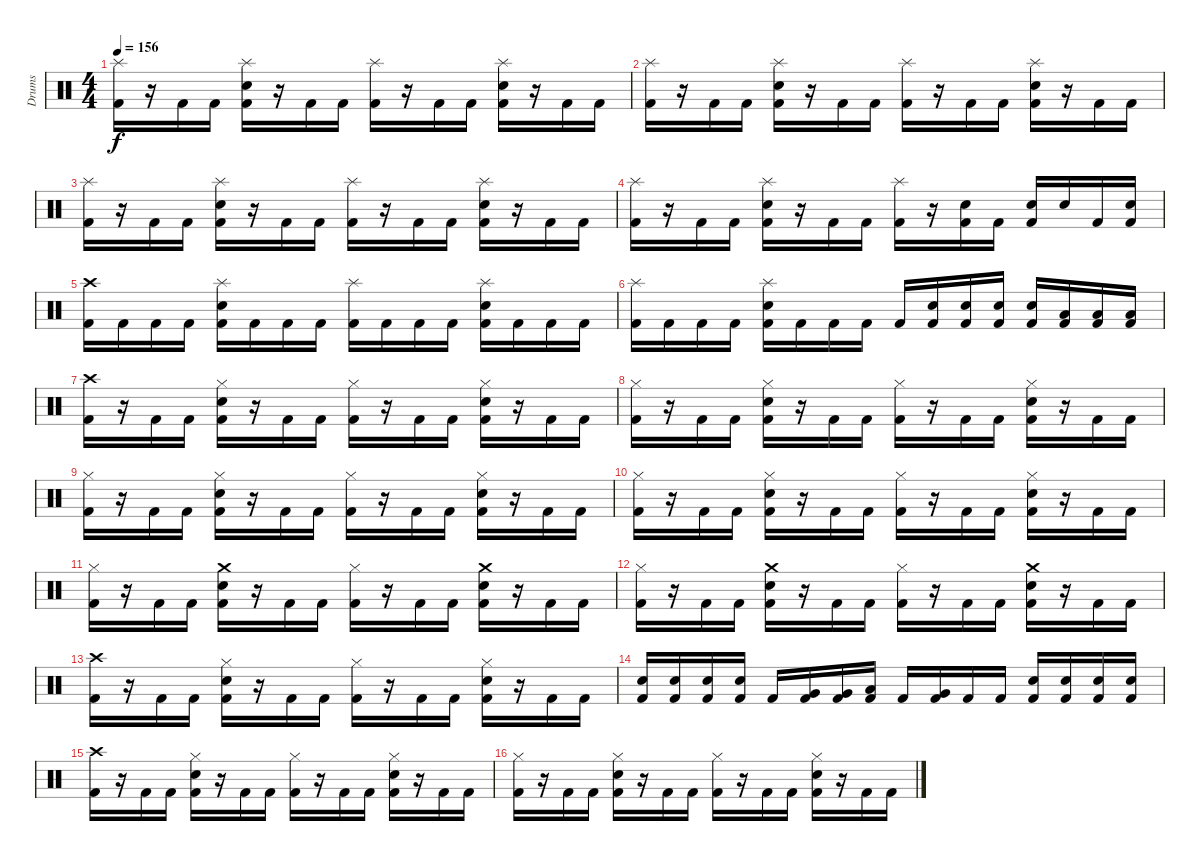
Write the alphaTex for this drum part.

\track ("Drums" "Drums") {instrument percussion}
\staff {score}
\articulation defaults
\ts (4 4)
\tempo 156
\clef neutral
\ks c
("Splash (hit)" "Kick (hit) 2").16{dy f} r.16 "Kick (hit) 2".16 "Kick (hit) 2".16 ("Splash (hit)" "Snare (hit) 2" "Kick (hit) 2").16 r.16 "Kick (hit) 2".16 "Kick (hit) 2".16 ("Splash (hit)" "Kick (hit) 2").16 r.16 "Kick (hit) 2".16 "Kick (hit) 2".16 ("Splash (hit)" "Snare (hit) 2" "Kick (hit) 2").16 r.16 "Kick (hit) 2".16 "Kick (hit) 2".16 |
("Splash (hit)" "Kick (hit) 2").16 r.16 "Kick (hit) 2".16 "Kick (hit) 2".16 ("Splash (hit)" "Snare (hit) 2" "Kick (hit) 2").16 r.16 "Kick (hit) 2".16 "Kick (hit) 2".16 ("Splash (hit)" "Kick (hit) 2").16 r.16 "Kick (hit) 2".16 "Kick (hit) 2".16 ("Splash (hit)" "Snare (hit) 2" "Kick (hit) 2").16 r.16 "Kick (hit) 2".16 "Kick (hit) 2".16 |
("Splash (hit)" "Kick (hit) 2").16 r.16 "Kick (hit) 2".16 "Kick (hit) 2".16 ("Splash (hit)" "Snare (hit) 2" "Kick (hit) 2").16 r.16 "Kick (hit) 2".16 "Kick (hit) 2".16 ("Splash (hit)" "Kick (hit) 2").16 r.16 "Kick (hit) 2".16 "Kick (hit) 2".16 ("Splash (hit)" "Snare (hit) 2" "Kick (hit) 2").16 r.16 "Kick (hit) 2".16 "Kick (hit) 2".16 |
("Splash (hit)" "Kick (hit) 2").16 r.16 "Kick (hit) 2".16 "Kick (hit) 2".16 ("Splash (hit)" "Snare (hit) 2" "Kick (hit) 2").16 r.16 "Kick (hit) 2".16 "Kick (hit) 2".16 ("Splash (hit)" "Kick (hit) 2").16 r.16 ("Snare (hit) 2" "Kick (hit) 2").16 "Kick (hit) 2".16 ("Snare (hit) 2" "Kick (hit) 2").16 "Snare (hit) 2".16 "Kick (hit) 2".16 ("Snare (hit) 2" "Kick (hit) 2").16 |
("Crash high (hit)" "Kick (hit) 2").16 "Kick (hit) 2".16 "Kick (hit) 2".16 "Kick (hit) 2".16 ("Splash (hit)" "Snare (hit) 2" "Kick (hit) 2").16 "Kick (hit) 2".16 "Kick (hit) 2".16 "Kick (hit) 2".16 ("Splash (hit)" "Kick (hit) 2").16 "Kick (hit) 2".16 "Kick (hit) 2".16 "Kick (hit) 2".16 ("Splash (hit)" "Snare (hit) 2" "Kick (hit) 2").16 "Kick (hit) 2".16 "Kick (hit) 2".16 "Kick (hit) 2".16 |
("Splash (hit)" "Kick (hit) 2").16 "Kick (hit) 2".16 "Kick (hit) 2".16 "Kick (hit) 2".16 ("Splash (hit)" "Snare (hit) 2" "Kick (hit) 2").16 "Kick (hit) 2".16 "Kick (hit) 2".16 "Kick (hit) 2".16 "Kick (hit) 2".16 ("Snare (hit) 2" "Kick (hit) 2").16 ("Snare (hit) 2" "Kick (hit) 2").16 ("Snare (hit) 2" "Kick (hit) 2").16 ("Snare (hit) 2" "Kick (hit) 2").16 ("Low Tom (hit)" "Kick (hit) 2").16 ("Low Tom (hit)" "Kick (hit) 2").16 ("Low Tom (hit)" "Kick (hit) 2").16 |
\section ("" "")
("Crash high (hit)" "Kick (hit) 2").16 r.16 "Kick (hit) 2".16 "Kick (hit) 2".16 ("Hi-Hat (closed)" "Snare (hit) 2" "Kick (hit) 2").16 r.16 "Kick (hit) 2".16 "Kick (hit) 2".16 ("Hi-Hat (closed)" "Kick (hit) 2").16 r.16 "Kick (hit) 2".16 "Kick (hit) 2".16 ("Hi-Hat (closed)" "Snare (hit) 2" "Kick (hit) 2").16 r.16 "Kick (hit) 2".16 "Kick (hit) 2".16 |
("Hi-Hat (closed)" "Kick (hit) 2").16 r.16 "Kick (hit) 2".16 "Kick (hit) 2".16 ("Hi-Hat (closed)" "Snare (hit) 2" "Kick (hit) 2").16 r.16 "Kick (hit) 2".16 "Kick (hit) 2".16 ("Hi-Hat (closed)" "Kick (hit) 2").16 r.16 "Kick (hit) 2".16 "Kick (hit) 2".16 ("Hi-Hat (closed)" "Snare (hit) 2" "Kick (hit) 2").16 r.16 "Kick (hit) 2".16 "Kick (hit) 2".16 |
("Hi-Hat (closed)" "Kick (hit) 2").16 r.16 "Kick (hit) 2".16 "Kick (hit) 2".16 ("Hi-Hat (closed)" "Snare (hit) 2" "Kick (hit) 2").16 r.16 "Kick (hit) 2".16 "Kick (hit) 2".16 ("Hi-Hat (closed)" "Kick (hit) 2").16 r.16 "Kick (hit) 2".16 "Kick (hit) 2".16 ("Hi-Hat (closed)" "Snare (hit) 2" "Kick (hit) 2").16 r.16 "Kick (hit) 2".16 "Kick (hit) 2".16 |
("Hi-Hat (closed)" "Kick (hit) 2").16 r.16 "Kick (hit) 2".16 "Kick (hit) 2".16 ("Hi-Hat (closed)" "Snare (hit) 2" "Kick (hit) 2").16 r.16 "Kick (hit) 2".16 "Kick (hit) 2".16 ("Hi-Hat (closed)" "Kick (hit) 2").16 r.16 "Kick (hit) 2".16 "Kick (hit) 2".16 ("Hi-Hat (closed)" "Snare (hit) 2" "Kick (hit) 2").16 r.16 "Kick (hit) 2".16 "Kick (hit) 2".16 |
("Hi-Hat (closed)" "Kick (hit) 2").16 r.16 "Kick (hit) 2".16 "Kick (hit) 2".16 ("Crash medium (hit)" "Snare (hit) 2" "Kick (hit) 2").16 r.16 "Kick (hit) 2".16 "Kick (hit) 2".16 ("Hi-Hat (closed)" "Kick (hit) 2").16 r.16 "Kick (hit) 2".16 "Kick (hit) 2".16 ("Crash medium (hit)" "Snare (hit) 2" "Kick (hit) 2").16 r.16 "Kick (hit) 2".16 "Kick (hit) 2".16 |
("Hi-Hat (closed)" "Kick (hit) 2").16 r.16 "Kick (hit) 2".16 "Kick (hit) 2".16 ("Crash medium (hit)" "Snare (hit) 2" "Kick (hit) 2").16 r.16 "Kick (hit) 2".16 "Kick (hit) 2".16 ("Hi-Hat (closed)" "Kick (hit) 2").16 r.16 "Kick (hit) 2".16 "Kick (hit) 2".16 ("Crash medium (hit)" "Snare (hit) 2" "Kick (hit) 2").16 r.16 "Kick (hit) 2".16 "Kick (hit) 2".16 |
("Crash high (hit)" "Kick (hit) 2").16 r.16 "Kick (hit) 2".16 "Kick (hit) 2".16 ("Hi-Hat (closed)" "Snare (hit) 2" "Kick (hit) 2").16 r.16 "Kick (hit) 2".16 "Kick (hit) 2".16 ("Hi-Hat (closed)" "Kick (hit) 2").16 r.16 "Kick (hit) 2".16 "Kick (hit) 2".16 ("Hi-Hat (closed)" "Snare (hit) 2" "Kick (hit) 2").16 r.16 "Kick (hit) 2".16 "Kick (hit) 2".16 |
("Snare (hit) 2" "Kick (hit) 2").16 ("Snare (hit) 2" "Kick (hit) 2").16 ("Snare (hit) 2" "Kick (hit) 2").16 ("Snare (hit) 2" "Kick (hit) 2").16 "Kick (hit) 2".16 ("Very Low Tom (hit)" "Kick (hit) 2").16 ("Very Low Tom (hit)" "Kick (hit) 2").16 ("Low Floor Tom (hit)" "Kick (hit) 2").16 "Kick (hit) 2".16 ("Very Low Tom (hit)" "Kick (hit) 2").16 "Kick (hit) 2".16 "Kick (hit) 2".16 ("Snare (hit) 2" "Kick (hit) 2").16 ("Snare (hit) 2" "Kick (hit) 2").16 ("Snare (hit) 2" "Kick (hit) 2").16 ("Snare (hit) 2" "Kick (hit) 2").16 |
("Crash high (hit)" "Kick (hit) 2").16 r.16 "Kick (hit) 2".16 "Kick (hit) 2".16 ("Hi-Hat (closed)" "Snare (hit) 2" "Kick (hit) 2").16 r.16 "Kick (hit) 2".16 "Kick (hit) 2".16 ("Hi-Hat (closed)" "Kick (hit) 2").16 r.16 "Kick (hit) 2".16 "Kick (hit) 2".16 ("Hi-Hat (closed)" "Snare (hit) 2" "Kick (hit) 2").16 r.16 "Kick (hit) 2".16 "Kick (hit) 2".16 |
("Hi-Hat (closed)" "Kick (hit) 2").16 r.16 "Kick (hit) 2".16 "Kick (hit) 2".16 ("Hi-Hat (closed)" "Snare (hit) 2" "Kick (hit) 2").16 r.16 "Kick (hit) 2".16 "Kick (hit) 2".16 ("Hi-Hat (closed)" "Kick (hit) 2").16 r.16 "Kick (hit) 2".16 "Kick (hit) 2".16 ("Hi-Hat (closed)" "Snare (hit) 2" "Kick (hit) 2").16 r.16 "Kick (hit) 2".16 "Kick (hit) 2".16
